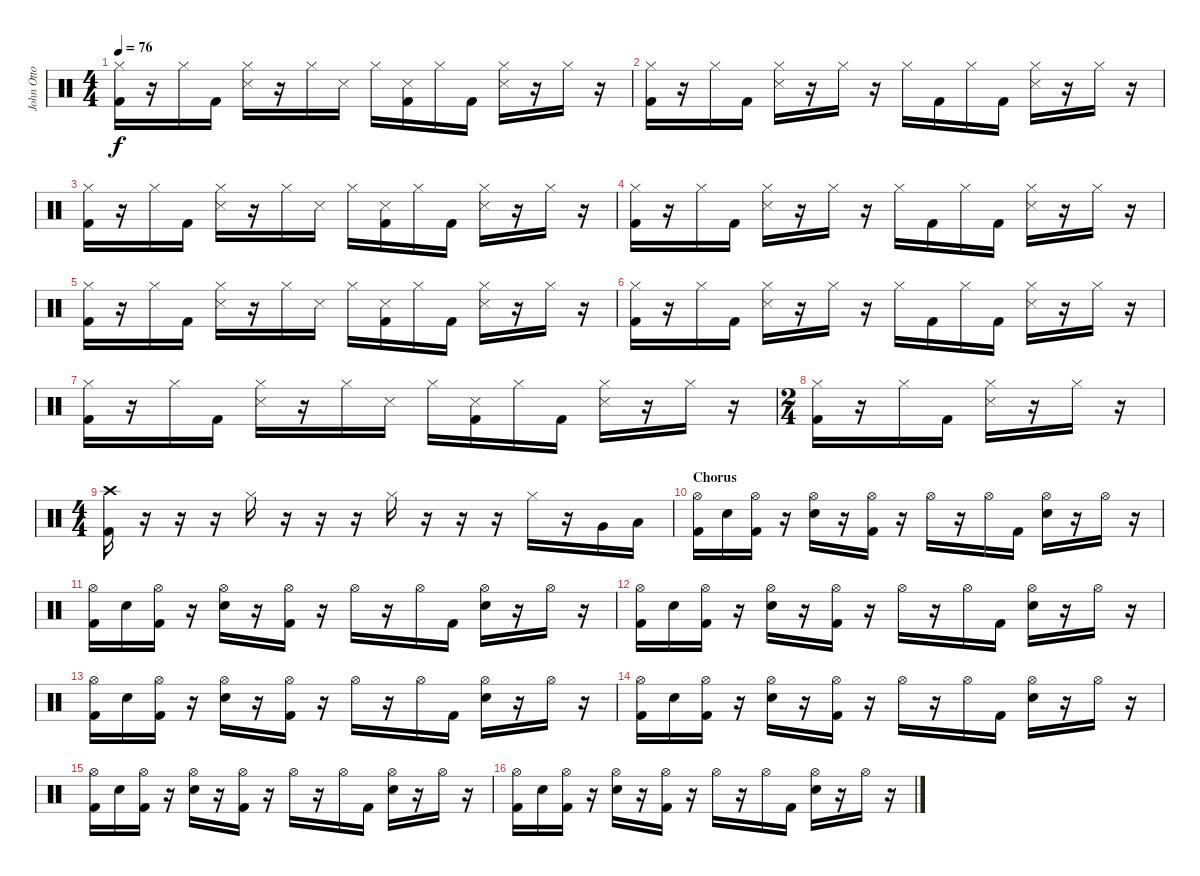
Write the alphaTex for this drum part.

\track ("John Otto" "John Otto") {instrument percussion}
\staff {score}
\articulation defaults
\ts (4 4)
\tempo 76
\clef neutral
\ks c
("Hi-Hat (closed)" "Kick (hit) 2").16{dy f} r.16 "Hi-Hat (closed)".16 "Kick (hit) 2".16 ("Hi-Hat (closed)" "Snare (side stick) 3").16 r.16 "Hi-Hat (closed)".16 "Snare (side stick) 3".16 "Hi-Hat (closed)".16 ("Snare (side stick) 3" "Kick (hit) 2").16 "Hi-Hat (closed)".16 "Kick (hit) 2".16 ("Hi-Hat (closed)" "Snare (side stick) 3").16 r.16 "Hi-Hat (closed)".16 r.16 |
("Hi-Hat (closed)" "Kick (hit) 2").16 r.16 "Hi-Hat (closed)".16 "Kick (hit) 2".16 ("Hi-Hat (closed)" "Snare (side stick) 3").16 r.16 "Hi-Hat (closed)".16 r.16 "Hi-Hat (closed)".16 "Kick (hit) 2".16 "Hi-Hat (closed)".16 "Kick (hit) 2".16 ("Hi-Hat (closed)" "Snare (side stick) 3").16 r.16 "Hi-Hat (closed)".16 r.16 |
("Hi-Hat (closed)" "Kick (hit) 2").16 r.16 "Hi-Hat (closed)".16 "Kick (hit) 2".16 ("Hi-Hat (closed)" "Snare (side stick) 3").16 r.16 "Hi-Hat (closed)".16 "Snare (side stick) 3".16 "Hi-Hat (closed)".16 ("Snare (side stick) 3" "Kick (hit) 2").16 "Hi-Hat (closed)".16 "Kick (hit) 2".16 ("Hi-Hat (closed)" "Snare (side stick) 3").16 r.16 "Hi-Hat (closed)".16 r.16 |
("Hi-Hat (closed)" "Kick (hit) 2").16 r.16 "Hi-Hat (closed)".16 "Kick (hit) 2".16 ("Hi-Hat (closed)" "Snare (side stick) 3").16 r.16 "Hi-Hat (closed)".16 r.16 "Hi-Hat (closed)".16 "Kick (hit) 2".16 "Hi-Hat (closed)".16 "Kick (hit) 2".16 ("Hi-Hat (closed)" "Snare (side stick) 3").16 r.16 "Hi-Hat (closed)".16 r.16 |
("Hi-Hat (closed)" "Kick (hit) 2").16 r.16 "Hi-Hat (closed)".16 "Kick (hit) 2".16 ("Hi-Hat (closed)" "Snare (side stick) 3").16 r.16 "Hi-Hat (closed)".16 "Snare (side stick) 3".16 "Hi-Hat (closed)".16 ("Snare (side stick) 3" "Kick (hit) 2").16 "Hi-Hat (closed)".16 "Kick (hit) 2".16 ("Hi-Hat (closed)" "Snare (side stick) 3").16 r.16 "Hi-Hat (closed)".16 r.16 |
("Hi-Hat (closed)" "Kick (hit) 2").16 r.16 "Hi-Hat (closed)".16 "Kick (hit) 2".16 ("Hi-Hat (closed)" "Snare (side stick) 3").16 r.16 "Hi-Hat (closed)".16 r.16 "Hi-Hat (closed)".16 "Kick (hit) 2".16 "Hi-Hat (closed)".16 "Kick (hit) 2".16 ("Hi-Hat (closed)" "Snare (side stick) 3").16 r.16 "Hi-Hat (closed)".16 r.16 |
("Hi-Hat (closed)" "Kick (hit) 2").16 r.16 "Hi-Hat (closed)".16 "Kick (hit) 2".16 ("Hi-Hat (closed)" "Snare (side stick) 3").16 r.16 "Hi-Hat (closed)".16 "Snare (side stick) 3".16 "Hi-Hat (closed)".16 ("Snare (side stick) 3" "Kick (hit) 2").16 "Hi-Hat (closed)".16 "Kick (hit) 2".16 ("Hi-Hat (closed)" "Snare (side stick) 3").16 r.16 "Hi-Hat (closed)".16 r.16 |
\ts (2 4)
("Hi-Hat (closed)" "Kick (hit) 2").16 r.16 "Hi-Hat (closed)".16 "Kick (hit) 2".16 ("Hi-Hat (closed)" "Snare (side stick) 3").16 r.16 "Hi-Hat (closed)".16 r.16 |
\ts (4 4)
("Crash high (hit)" "Kick (hit) 2").16 r.16 r.16 r.16 "Hi-Hat (closed)".16 r.16 r.16 r.16 "Hi-Hat (closed)".16 r.16 r.16 r.16 "Hi-Hat (closed)".16 r.16 "Very Low Tom (hit)".16 "Low Tom (hit)".16 |
\section ("" "Chorus")
("Hi-Hat (open)" "Kick (hit) 2").16 "Snare (hit) 2".16 ("Hi-Hat (open)" "Kick (hit) 2").16 r.16 ("Hi-Hat (open)" "Snare (hit) 2").16 r.16 ("Hi-Hat (open)" "Kick (hit) 2").16 r.16 "Hi-Hat (open)".16 r.16 "Hi-Hat (open)".16 "Kick (hit) 2".16 ("Hi-Hat (open)" "Snare (hit) 2").16 r.16 "Hi-Hat (open)".16 r.16 |
("Hi-Hat (open)" "Kick (hit) 2").16 "Snare (hit) 2".16 ("Hi-Hat (open)" "Kick (hit) 2").16 r.16 ("Hi-Hat (open)" "Snare (hit) 2").16 r.16 ("Hi-Hat (open)" "Kick (hit) 2").16 r.16 "Hi-Hat (open)".16 r.16 "Hi-Hat (open)".16 "Kick (hit) 2".16 ("Hi-Hat (open)" "Snare (hit) 2").16 r.16 "Hi-Hat (open)".16 r.16 |
("Hi-Hat (open)" "Kick (hit) 2").16 "Snare (hit) 2".16 ("Hi-Hat (open)" "Kick (hit) 2").16 r.16 ("Hi-Hat (open)" "Snare (hit) 2").16 r.16 ("Hi-Hat (open)" "Kick (hit) 2").16 r.16 "Hi-Hat (open)".16 r.16 "Hi-Hat (open)".16 "Kick (hit) 2".16 ("Hi-Hat (open)" "Snare (hit) 2").16 r.16 "Hi-Hat (open)".16 r.16 |
("Hi-Hat (open)" "Kick (hit) 2").16 "Snare (hit) 2".16 ("Hi-Hat (open)" "Kick (hit) 2").16 r.16 ("Hi-Hat (open)" "Snare (hit) 2").16 r.16 ("Hi-Hat (open)" "Kick (hit) 2").16 r.16 "Hi-Hat (open)".16 r.16 "Hi-Hat (open)".16 "Kick (hit) 2".16 ("Hi-Hat (open)" "Snare (hit) 2").16 r.16 "Hi-Hat (open)".16 r.16 |
("Hi-Hat (open)" "Kick (hit) 2").16 "Snare (hit) 2".16 ("Hi-Hat (open)" "Kick (hit) 2").16 r.16 ("Hi-Hat (open)" "Snare (hit) 2").16 r.16 ("Hi-Hat (open)" "Kick (hit) 2").16 r.16 "Hi-Hat (open)".16 r.16 "Hi-Hat (open)".16 "Kick (hit) 2".16 ("Hi-Hat (open)" "Snare (hit) 2").16 r.16 "Hi-Hat (open)".16 r.16 |
("Hi-Hat (open)" "Kick (hit) 2").16 "Snare (hit) 2".16 ("Hi-Hat (open)" "Kick (hit) 2").16 r.16 ("Hi-Hat (open)" "Snare (hit) 2").16 r.16 ("Hi-Hat (open)" "Kick (hit) 2").16 r.16 "Hi-Hat (open)".16 r.16 "Hi-Hat (open)".16 "Kick (hit) 2".16 ("Hi-Hat (open)" "Snare (hit) 2").16 r.16 "Hi-Hat (open)".16 r.16 |
("Hi-Hat (open)" "Kick (hit) 2").16 "Snare (hit) 2".16 ("Hi-Hat (open)" "Kick (hit) 2").16 r.16 ("Hi-Hat (open)" "Snare (hit) 2").16 r.16 ("Hi-Hat (open)" "Kick (hit) 2").16 r.16 "Hi-Hat (open)".16 r.16 "Hi-Hat (open)".16 "Kick (hit) 2".16 ("Hi-Hat (open)" "Snare (hit) 2").16 r.16 "Hi-Hat (open)".16 r.16
